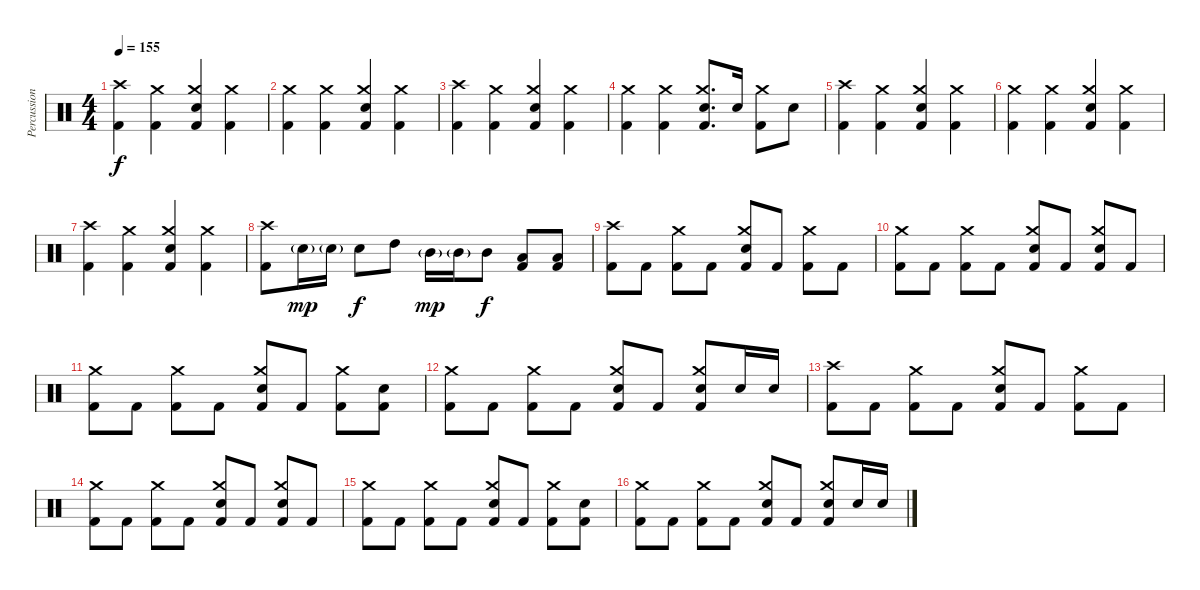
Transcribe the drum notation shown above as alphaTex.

\track ("Percussion" "Percussion") {instrument percussion}
\staff {score}
\articulation defaults
\ts (4 4)
\tempo 155
\clef neutral
\ks c
("Crash high (hit)" "Kick (hit) 2").4{dy f} ("Crash medium (hit)" "Kick (hit) 2").4 ("Crash medium (hit)" "Electric Snare (hit)" "Kick (hit) 2").4 ("Crash medium (hit)" "Kick (hit) 2").4 |
("Crash medium (hit)" "Kick (hit) 2").4 ("Crash medium (hit)" "Kick (hit) 2").4 ("Crash medium (hit)" "Electric Snare (hit)" "Kick (hit) 2").4 ("Crash medium (hit)" "Kick (hit) 2").4 |
("Crash high (hit)" "Kick (hit) 2").4 ("Crash medium (hit)" "Kick (hit) 2").4 ("Crash medium (hit)" "Electric Snare (hit)" "Kick (hit) 2").4 ("Crash medium (hit)" "Kick (hit) 2").4 |
("Crash medium (hit)" "Kick (hit) 2").4 ("Crash medium (hit)" "Kick (hit) 2").4 ("Crash medium (hit)" "Electric Snare (hit)" "Kick (hit) 2").8{d} "Electric Snare (hit)".16 ("Crash medium (hit)" "Kick (hit) 2").8 "Electric Snare (hit)".8 |
("Crash high (hit)" "Kick (hit) 2").4 ("Crash medium (hit)" "Kick (hit) 2").4 ("Crash medium (hit)" "Electric Snare (hit)" "Kick (hit) 2").4 ("Crash medium (hit)" "Kick (hit) 2").4 |
("Crash medium (hit)" "Kick (hit) 2").4 ("Crash medium (hit)" "Kick (hit) 2").4 ("Crash medium (hit)" "Electric Snare (hit)" "Kick (hit) 2").4 ("Crash medium (hit)" "Kick (hit) 2").4 |
("Crash high (hit)" "Kick (hit) 2").4 ("Crash medium (hit)" "Kick (hit) 2").4 ("Crash medium (hit)" "Electric Snare (hit)" "Kick (hit) 2").4 ("Crash medium (hit)" "Kick (hit) 2").4 |
("Crash high (hit)" "Kick (hit) 2").8 "Electric Snare (hit)"{g}.16{dy mp} "Electric Snare (hit)"{g}.16 "Electric Snare (hit)".8{dy f} "High Tom (hit)".8 "Mid Tom (hit)"{g}.16{dy mp} "Mid Tom (hit)"{g}.16 "Mid Tom (hit)".8{dy f} ("Low Tom (hit)" "Kick (hit) 2").8 ("Low Tom (hit)" "Kick (hit) 2").8 |
("Crash high (hit)" "Kick (hit) 2").8 "Kick (hit) 2".8 ("Crash medium (hit)" "Kick (hit) 2").8 "Kick (hit) 2".8 ("Crash medium (hit)" "Electric Snare (hit)" "Kick (hit) 2").8 "Kick (hit) 2".8 ("Crash medium (hit)" "Kick (hit) 2").8 "Kick (hit) 2".8 |
("Crash medium (hit)" "Kick (hit) 2").8 "Kick (hit) 2".8 ("Crash medium (hit)" "Kick (hit) 2").8 "Kick (hit) 2".8 ("Crash medium (hit)" "Electric Snare (hit)" "Kick (hit) 2").8 "Kick (hit) 2".8 ("Crash medium (hit)" "Electric Snare (hit)" "Kick (hit) 2").8 "Kick (hit) 2".8 |
("Crash medium (hit)" "Kick (hit) 2").8 "Kick (hit) 2".8 ("Crash medium (hit)" "Kick (hit) 2").8 "Kick (hit) 2".8 ("Crash medium (hit)" "Electric Snare (hit)" "Kick (hit) 2").8 "Kick (hit) 2".8 ("Crash medium (hit)" "Kick (hit) 2").8 ("Electric Snare (hit)" "Kick (hit) 2").8 |
("Crash medium (hit)" "Kick (hit) 2").8 "Kick (hit) 2".8 ("Crash medium (hit)" "Kick (hit) 2").8 "Kick (hit) 2".8 ("Crash medium (hit)" "Electric Snare (hit)" "Kick (hit) 2").8 "Kick (hit) 2".8 ("Crash medium (hit)" "Electric Snare (hit)" "Kick (hit) 2").8 "Electric Snare (hit)".16 "Electric Snare (hit)".16 |
("Crash high (hit)" "Kick (hit) 2").8 "Kick (hit) 2".8 ("Crash medium (hit)" "Kick (hit) 2").8 "Kick (hit) 2".8 ("Crash medium (hit)" "Electric Snare (hit)" "Kick (hit) 2").8 "Kick (hit) 2".8 ("Crash medium (hit)" "Kick (hit) 2").8 "Kick (hit) 2".8 |
("Crash medium (hit)" "Kick (hit) 2").8 "Kick (hit) 2".8 ("Crash medium (hit)" "Kick (hit) 2").8 "Kick (hit) 2".8 ("Crash medium (hit)" "Electric Snare (hit)" "Kick (hit) 2").8 "Kick (hit) 2".8 ("Crash medium (hit)" "Electric Snare (hit)" "Kick (hit) 2").8 "Kick (hit) 2".8 |
("Crash medium (hit)" "Kick (hit) 2").8 "Kick (hit) 2".8 ("Crash medium (hit)" "Kick (hit) 2").8 "Kick (hit) 2".8 ("Crash medium (hit)" "Electric Snare (hit)" "Kick (hit) 2").8 "Kick (hit) 2".8 ("Crash medium (hit)" "Kick (hit) 2").8 ("Electric Snare (hit)" "Kick (hit) 2").8 |
("Crash medium (hit)" "Kick (hit) 2").8 "Kick (hit) 2".8 ("Crash medium (hit)" "Kick (hit) 2").8 "Kick (hit) 2".8 ("Crash medium (hit)" "Electric Snare (hit)" "Kick (hit) 2").8 "Kick (hit) 2".8 ("Crash medium (hit)" "Electric Snare (hit)" "Kick (hit) 2").8 "Electric Snare (hit)".16 "Electric Snare (hit)".16
